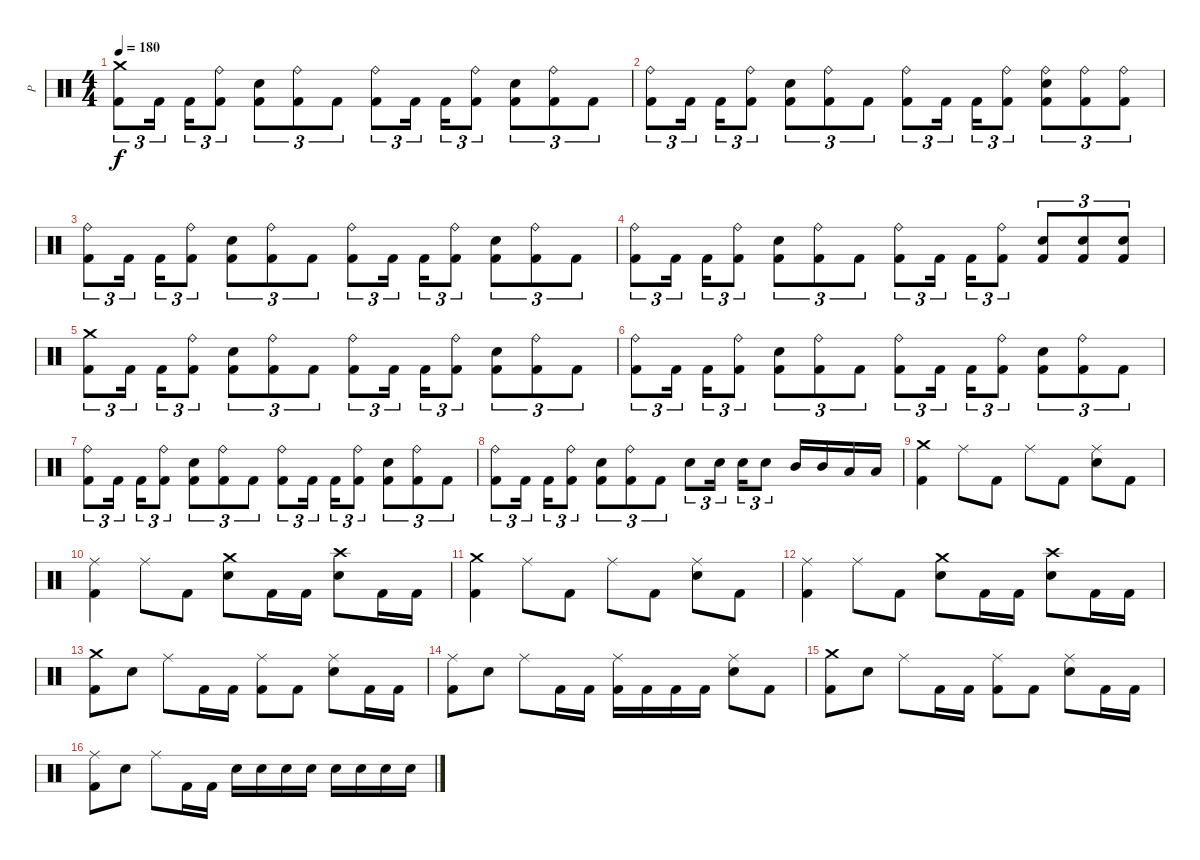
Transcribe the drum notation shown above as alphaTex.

\track ("P" "P") {instrument percussion}
\staff {score}
\articulation defaults
\ts (4 4)
\tempo 180
\clef neutral
\ks c
("Crash medium (hit)" "Kick (hit) 2").8{tu (3 2) dy f} "Kick (hit) 2".16{tu (3 2)} "Kick (hit) 2".16{tu (3 2)} ("Ride (bell)" "Kick (hit) 2").8{tu (3 2)} ("Electric Snare (hit)" "Kick (hit) 2").8{tu (3 2)} ("Ride (bell)" "Kick (hit) 2").8{tu (3 2)} "Kick (hit) 2".8{tu (3 2)} ("Ride (bell)" "Kick (hit) 2").8{tu (3 2)} "Kick (hit) 2".16{tu (3 2)} "Kick (hit) 2".16{tu (3 2)} ("Ride (bell)" "Kick (hit) 2").8{tu (3 2)} ("Electric Snare (hit)" "Kick (hit) 2").8{tu (3 2)} ("Ride (bell)" "Kick (hit) 2").8{tu (3 2)} "Kick (hit) 2".8{tu (3 2)} |
("Ride (bell)" "Kick (hit) 2").8{tu (3 2)} "Kick (hit) 2".16{tu (3 2)} "Kick (hit) 2".16{tu (3 2)} ("Ride (bell)" "Kick (hit) 2").8{tu (3 2)} ("Electric Snare (hit)" "Kick (hit) 2").8{tu (3 2)} ("Ride (bell)" "Kick (hit) 2").8{tu (3 2)} "Kick (hit) 2".8{tu (3 2)} ("Ride (bell)" "Kick (hit) 2").8{tu (3 2)} "Kick (hit) 2".16{tu (3 2)} "Kick (hit) 2".16{tu (3 2)} ("Ride (bell)" "Kick (hit) 2").8{tu (3 2)} ("Ride (bell)" "Electric Snare (hit)" "Kick (hit) 2").8{tu (3 2)} ("Ride (bell)" "Kick (hit) 2").8{tu (3 2)} ("Ride (bell)" "Kick (hit) 2").8{tu (3 2)} |
("Ride (bell)" "Kick (hit) 2").8{tu (3 2)} "Kick (hit) 2".16{tu (3 2)} "Kick (hit) 2".16{tu (3 2)} ("Ride (bell)" "Kick (hit) 2").8{tu (3 2)} ("Electric Snare (hit)" "Kick (hit) 2").8{tu (3 2)} ("Ride (bell)" "Kick (hit) 2").8{tu (3 2)} "Kick (hit) 2".8{tu (3 2)} ("Ride (bell)" "Kick (hit) 2").8{tu (3 2)} "Kick (hit) 2".16{tu (3 2)} "Kick (hit) 2".16{tu (3 2)} ("Ride (bell)" "Kick (hit) 2").8{tu (3 2)} ("Electric Snare (hit)" "Kick (hit) 2").8{tu (3 2)} ("Ride (bell)" "Kick (hit) 2").8{tu (3 2)} "Kick (hit) 2".8{tu (3 2)} |
("Ride (bell)" "Kick (hit) 2").8{tu (3 2)} "Kick (hit) 2".16{tu (3 2)} "Kick (hit) 2".16{tu (3 2)} ("Ride (bell)" "Kick (hit) 2").8{tu (3 2)} ("Electric Snare (hit)" "Kick (hit) 2").8{tu (3 2)} ("Ride (bell)" "Kick (hit) 2").8{tu (3 2)} "Kick (hit) 2".8{tu (3 2)} ("Ride (bell)" "Kick (hit) 2").8{tu (3 2)} "Kick (hit) 2".16{tu (3 2)} "Kick (hit) 2".16{tu (3 2)} ("Ride (bell)" "Kick (hit) 2").8{tu (3 2)} ("Electric Snare (hit)" "Kick (hit) 2").8{tu (3 2)} ("Electric Snare (hit)" "Kick (hit) 2").8{tu (3 2)} ("Electric Snare (hit)" "Kick (hit) 2").8{tu (3 2)} |
("Crash medium (hit)" "Kick (hit) 2").8{tu (3 2)} "Kick (hit) 2".16{tu (3 2)} "Kick (hit) 2".16{tu (3 2)} ("Ride (bell)" "Kick (hit) 2").8{tu (3 2)} ("Electric Snare (hit)" "Kick (hit) 2").8{tu (3 2)} ("Ride (bell)" "Kick (hit) 2").8{tu (3 2)} "Kick (hit) 2".8{tu (3 2)} ("Ride (bell)" "Kick (hit) 2").8{tu (3 2)} "Kick (hit) 2".16{tu (3 2)} "Kick (hit) 2".16{tu (3 2)} ("Ride (bell)" "Kick (hit) 2").8{tu (3 2)} ("Electric Snare (hit)" "Kick (hit) 2").8{tu (3 2)} ("Ride (bell)" "Kick (hit) 2").8{tu (3 2)} "Kick (hit) 2".8{tu (3 2)} |
("Ride (bell)" "Kick (hit) 2").8{tu (3 2)} "Kick (hit) 2".16{tu (3 2)} "Kick (hit) 2".16{tu (3 2)} ("Ride (bell)" "Kick (hit) 2").8{tu (3 2)} ("Electric Snare (hit)" "Kick (hit) 2").8{tu (3 2)} ("Ride (bell)" "Kick (hit) 2").8{tu (3 2)} "Kick (hit) 2".8{tu (3 2)} ("Ride (bell)" "Kick (hit) 2").8{tu (3 2)} "Kick (hit) 2".16{tu (3 2)} "Kick (hit) 2".16{tu (3 2)} ("Ride (bell)" "Kick (hit) 2").8{tu (3 2)} ("Electric Snare (hit)" "Kick (hit) 2").8{tu (3 2)} ("Ride (bell)" "Kick (hit) 2").8{tu (3 2)} "Kick (hit) 2".8{tu (3 2)} |
("Ride (bell)" "Kick (hit) 2").8{tu (3 2)} "Kick (hit) 2".16{tu (3 2)} "Kick (hit) 2".16{tu (3 2)} ("Ride (bell)" "Kick (hit) 2").8{tu (3 2)} ("Electric Snare (hit)" "Kick (hit) 2").8{tu (3 2)} ("Ride (bell)" "Kick (hit) 2").8{tu (3 2)} "Kick (hit) 2".8{tu (3 2)} ("Ride (bell)" "Kick (hit) 2").8{tu (3 2)} "Kick (hit) 2".16{tu (3 2)} "Kick (hit) 2".16{tu (3 2)} ("Ride (bell)" "Kick (hit) 2").8{tu (3 2)} ("Electric Snare (hit)" "Kick (hit) 2").8{tu (3 2)} ("Ride (bell)" "Kick (hit) 2").8{tu (3 2)} "Kick (hit) 2".8{tu (3 2)} |
("Ride (bell)" "Kick (hit) 2").8{tu (3 2)} "Kick (hit) 2".16{tu (3 2)} "Kick (hit) 2".16{tu (3 2)} ("Ride (bell)" "Kick (hit) 2").8{tu (3 2)} ("Electric Snare (hit)" "Kick (hit) 2").8{tu (3 2)} ("Ride (bell)" "Kick (hit) 2").8{tu (3 2)} "Kick (hit) 2".8{tu (3 2)} "Electric Snare (hit)".8{tu (3 2)} "Electric Snare (hit)".16{tu (3 2)} "Electric Snare (hit)".16{tu (3 2)} "Electric Snare (hit)".8{tu (3 2)} "Mid Tom (hit)".16 "Mid Tom (hit)".16 "Low Tom (hit)".16 "Low Tom (hit)".16 |
("Crash medium (hit)" "Kick (hit) 2").4 "Ride (middle)".8 "Kick (hit) 2".8 "Ride (middle)".8 "Kick (hit) 2".8 ("Ride (middle)" "Electric Snare (hit)").8 "Kick (hit) 2".8 |
("Ride (middle)" "Kick (hit) 2").4 "Ride (middle)".8 "Kick (hit) 2".8 ("Crash medium (hit)" "Electric Snare (hit)").8 "Kick (hit) 2".16 "Kick (hit) 2".16 ("Crash high (hit)" "Electric Snare (hit)").8 "Kick (hit) 2".16 "Kick (hit) 2".16 |
("Crash medium (hit)" "Kick (hit) 2").4 "Ride (middle)".8 "Kick (hit) 2".8 "Ride (middle)".8 "Kick (hit) 2".8 ("Ride (middle)" "Electric Snare (hit)").8 "Kick (hit) 2".8 |
("Ride (middle)" "Kick (hit) 2").4 "Ride (middle)".8 "Kick (hit) 2".8 ("Crash medium (hit)" "Electric Snare (hit)").8 "Kick (hit) 2".16 "Kick (hit) 2".16 ("Crash high (hit)" "Electric Snare (hit)").8 "Kick (hit) 2".16 "Kick (hit) 2".16 |
("Crash medium (hit)" "Kick (hit) 2").8 "Electric Snare (hit)".8 "Ride (middle)".8 "Kick (hit) 2".16 "Kick (hit) 2".16 ("Ride (middle)" "Kick (hit) 2").8 "Kick (hit) 2".8 ("Ride (middle)" "Electric Snare (hit)").8 "Kick (hit) 2".16 "Kick (hit) 2".16 |
("Ride (middle)" "Kick (hit) 2").8 "Electric Snare (hit)".8 "Ride (middle)".8 "Kick (hit) 2".16 "Kick (hit) 2".16 ("Ride (middle)" "Kick (hit) 2").16 "Kick (hit) 2".16 "Kick (hit) 2".16 "Kick (hit) 2".16 ("Ride (middle)" "Electric Snare (hit)").8 "Kick (hit) 2".8 |
("Crash medium (hit)" "Kick (hit) 2").8 "Electric Snare (hit)".8 "Ride (middle)".8 "Kick (hit) 2".16 "Kick (hit) 2".16 ("Ride (middle)" "Kick (hit) 2").8 "Kick (hit) 2".8 ("Ride (middle)" "Electric Snare (hit)").8 "Kick (hit) 2".16 "Kick (hit) 2".16 |
("Ride (middle)" "Kick (hit) 2").8 "Electric Snare (hit)".8 "Ride (middle)".8 "Kick (hit) 2".16 "Kick (hit) 2".16 "Electric Snare (hit)".16 "Electric Snare (hit)".16 "Electric Snare (hit)".16 "Electric Snare (hit)".16 "Electric Snare (hit)".16 "Electric Snare (hit)".16 "Electric Snare (hit)".16 "Electric Snare (hit)".16
